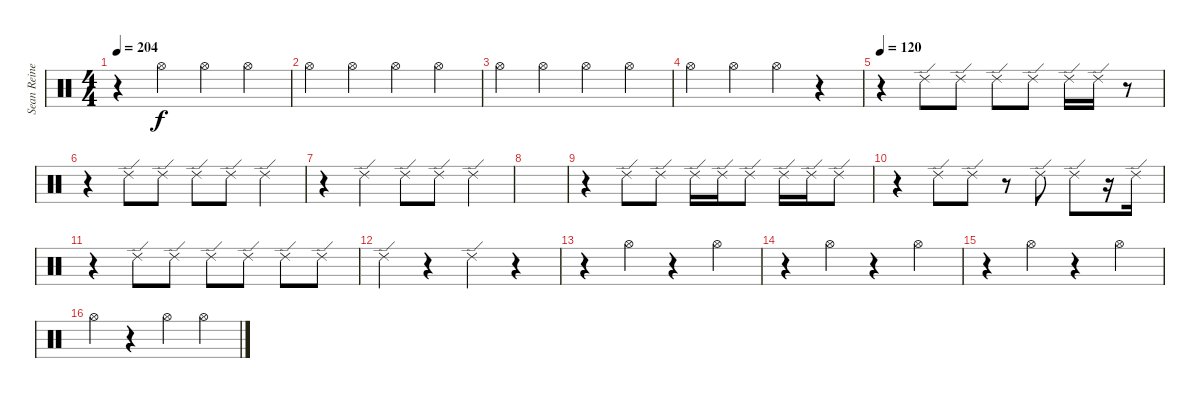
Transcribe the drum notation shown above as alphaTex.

\track ("Sean Reinert" "Sean Reine") {instrument percussion}
\staff {score}
\articulation defaults
\ts (4 4)
\tempo 204
\clef neutral
\ks c
r.4{dy f} "Hi-Hat (open)".4 "Hi-Hat (open)".4 "Hi-Hat (open)".4 |
"Hi-Hat (open)".4 "Hi-Hat (open)".4 "Hi-Hat (open)".4 "Hi-Hat (open)".4 |
"Hi-Hat (open)".4 "Hi-Hat (open)".4 "Hi-Hat (open)".4 "Hi-Hat (open)".4 |
"Hi-Hat (open)".4 "Hi-Hat (open)".4 "Hi-Hat (open)".4 r.4 |
\tempo 120
r.4 "Ride (edge) 2".8 "Ride (edge) 2".8 "Ride (edge) 2".8 "Ride (edge) 2".8 "Ride (edge) 2".16 "Ride (edge) 2".16 r.8 |
r.4 "Ride (edge) 2".8 "Ride (edge) 2".8 "Ride (edge) 2".8 "Ride (edge) 2".8 "Ride (edge) 2".4 |
r.4 "Ride (edge) 2".4 "Ride (edge) 2".8 "Ride (edge) 2".8 "Ride (edge) 2".4 |
|
r.4 "Ride (edge) 2".8 "Ride (edge) 2".8 "Ride (edge) 2".16 "Ride (edge) 2".16 "Ride (edge) 2".8 "Ride (edge) 2".16 "Ride (edge) 2".16 "Ride (edge) 2".8 |
r.4 "Ride (edge) 2".8 "Ride (edge) 2".8 r.8 "Ride (edge) 2".8 "Ride (edge) 2".8 r.16 "Ride (edge) 2".16 |
r.4 "Ride (edge) 2".8 "Ride (edge) 2".8 "Ride (edge) 2".8 "Ride (edge) 2".8 "Ride (edge) 2".8 "Ride (edge) 2".8 |
"Ride (edge) 2".4 r.4 "Ride (edge) 2".4 r.4 |
r.4 "Hi-Hat (open)".4 r.4 "Hi-Hat (open)".4 |
r.4 "Hi-Hat (open)".4 r.4 "Hi-Hat (open)".4 |
r.4 "Hi-Hat (open)".4 r.4 "Hi-Hat (open)".4 |
"Hi-Hat (open)".4 r.4 "Hi-Hat (open)".4 "Hi-Hat (open)".4
